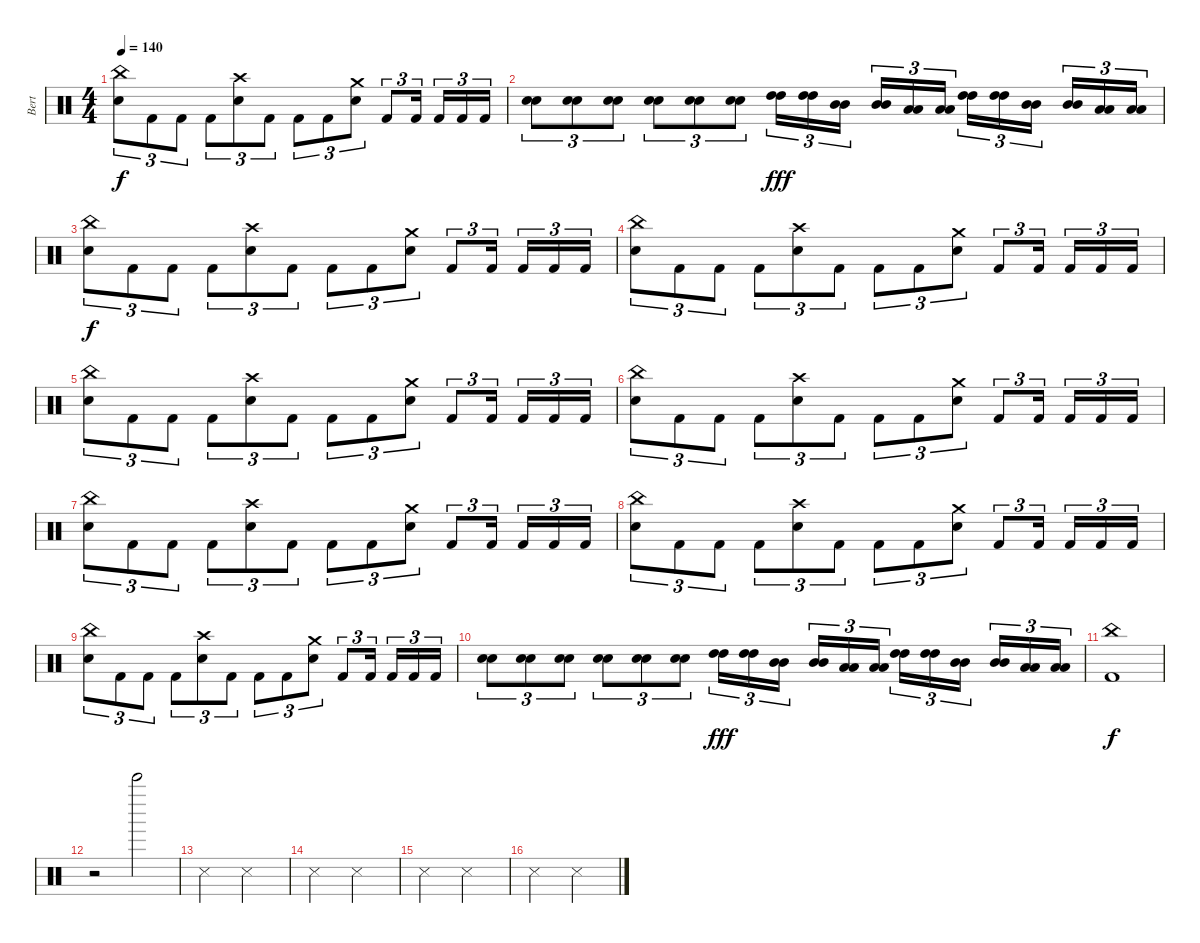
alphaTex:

\track ("Bert" "Bert") {instrument percussion}
\staff {score}
\articulation defaults
\ts (4 4)
\tempo 140
\clef neutral
\ks c
("China (hit)" "Snare (hit) 2").8{tu (3 2) dy f} "Kick (hit) 2".8{tu (3 2)} "Kick (hit) 2".8{tu (3 2)} "Kick (hit) 2".8{tu (3 2)} ("Crash high (hit)" "Snare (hit) 2").8{tu (3 2)} "Kick (hit) 2".8{tu (3 2)} "Kick (hit) 2".8{tu (3 2)} "Kick (hit) 2".8{tu (3 2)} ("Crash medium (hit)" "Snare (hit) 2").8{tu (3 2)} "Kick (hit) 2".8{tu (3 2)} "Kick (hit) 2".16{tu (3 2)} "Kick (hit) 2".16{tu (3 2)} "Kick (hit) 2".16{tu (3 2)} "Kick (hit) 2".16{tu (3 2)} |
("Electric Snare (hit)" "Snare (hit) 2").8{tu (3 2)} ("Electric Snare (hit)" "Snare (hit) 2").8{tu (3 2)} ("Electric Snare (hit)" "Snare (hit) 2").8{tu (3 2)} ("Electric Snare (hit)" "Snare (hit) 2").8{tu (3 2)} ("Electric Snare (hit)" "Snare (hit) 2").8{tu (3 2)} ("Electric Snare (hit)" "Snare (hit) 2").8{tu (3 2)} ("High Tom (hit)" "High Tom (hit)").16{tu (3 2) dy fff} ("High Tom (hit)" "High Tom (hit)").16{tu (3 2)} ("Mid Tom (hit)" "Mid Tom (hit)").16{tu (3 2)} ("Mid Tom (hit)" "Mid Tom (hit)").16{tu (3 2)} ("Low Tom (hit)" "Low Tom (hit)").16{tu (3 2)} ("Low Tom (hit)" "Low Tom (hit)").16{tu (3 2)} ("High Tom (hit)" "High Tom (hit)").16{tu (3 2)} ("High Tom (hit)" "High Tom (hit)").16{tu (3 2)} ("Mid Tom (hit)" "Mid Tom (hit)").16{tu (3 2)} ("Mid Tom (hit)" "Mid Tom (hit)").16{tu (3 2)} ("Low Tom (hit)" "Low Tom (hit)").16{tu (3 2)} ("Low Tom (hit)" "Low Tom (hit)").16{tu (3 2)} |
("China (hit)" "Snare (hit) 2").8{tu (3 2) dy f} "Kick (hit) 2".8{tu (3 2)} "Kick (hit) 2".8{tu (3 2)} "Kick (hit) 2".8{tu (3 2)} ("Crash high (hit)" "Snare (hit) 2").8{tu (3 2)} "Kick (hit) 2".8{tu (3 2)} "Kick (hit) 2".8{tu (3 2)} "Kick (hit) 2".8{tu (3 2)} ("Crash medium (hit)" "Snare (hit) 2").8{tu (3 2)} "Kick (hit) 2".8{tu (3 2)} "Kick (hit) 2".16{tu (3 2)} "Kick (hit) 2".16{tu (3 2)} "Kick (hit) 2".16{tu (3 2)} "Kick (hit) 2".16{tu (3 2)} |
("China (hit)" "Snare (hit) 2").8{tu (3 2)} "Kick (hit) 2".8{tu (3 2)} "Kick (hit) 2".8{tu (3 2)} "Kick (hit) 2".8{tu (3 2)} ("Crash high (hit)" "Snare (hit) 2").8{tu (3 2)} "Kick (hit) 2".8{tu (3 2)} "Kick (hit) 2".8{tu (3 2)} "Kick (hit) 2".8{tu (3 2)} ("Crash medium (hit)" "Snare (hit) 2").8{tu (3 2)} "Kick (hit) 2".8{tu (3 2)} "Kick (hit) 2".16{tu (3 2)} "Kick (hit) 2".16{tu (3 2)} "Kick (hit) 2".16{tu (3 2)} "Kick (hit) 2".16{tu (3 2)} |
("China (hit)" "Snare (hit) 2").8{tu (3 2)} "Kick (hit) 2".8{tu (3 2)} "Kick (hit) 2".8{tu (3 2)} "Kick (hit) 2".8{tu (3 2)} ("Crash high (hit)" "Snare (hit) 2").8{tu (3 2)} "Kick (hit) 2".8{tu (3 2)} "Kick (hit) 2".8{tu (3 2)} "Kick (hit) 2".8{tu (3 2)} ("Crash medium (hit)" "Snare (hit) 2").8{tu (3 2)} "Kick (hit) 2".8{tu (3 2)} "Kick (hit) 2".16{tu (3 2)} "Kick (hit) 2".16{tu (3 2)} "Kick (hit) 2".16{tu (3 2)} "Kick (hit) 2".16{tu (3 2)} |
("China (hit)" "Snare (hit) 2").8{tu (3 2)} "Kick (hit) 2".8{tu (3 2)} "Kick (hit) 2".8{tu (3 2)} "Kick (hit) 2".8{tu (3 2)} ("Crash high (hit)" "Snare (hit) 2").8{tu (3 2)} "Kick (hit) 2".8{tu (3 2)} "Kick (hit) 2".8{tu (3 2)} "Kick (hit) 2".8{tu (3 2)} ("Crash medium (hit)" "Snare (hit) 2").8{tu (3 2)} "Kick (hit) 2".8{tu (3 2)} "Kick (hit) 2".16{tu (3 2)} "Kick (hit) 2".16{tu (3 2)} "Kick (hit) 2".16{tu (3 2)} "Kick (hit) 2".16{tu (3 2)} |
("China (hit)" "Snare (hit) 2").8{tu (3 2)} "Kick (hit) 2".8{tu (3 2)} "Kick (hit) 2".8{tu (3 2)} "Kick (hit) 2".8{tu (3 2)} ("Crash high (hit)" "Snare (hit) 2").8{tu (3 2)} "Kick (hit) 2".8{tu (3 2)} "Kick (hit) 2".8{tu (3 2)} "Kick (hit) 2".8{tu (3 2)} ("Crash medium (hit)" "Snare (hit) 2").8{tu (3 2)} "Kick (hit) 2".8{tu (3 2)} "Kick (hit) 2".16{tu (3 2)} "Kick (hit) 2".16{tu (3 2)} "Kick (hit) 2".16{tu (3 2)} "Kick (hit) 2".16{tu (3 2)} |
("China (hit)" "Snare (hit) 2").8{tu (3 2)} "Kick (hit) 2".8{tu (3 2)} "Kick (hit) 2".8{tu (3 2)} "Kick (hit) 2".8{tu (3 2)} ("Crash high (hit)" "Snare (hit) 2").8{tu (3 2)} "Kick (hit) 2".8{tu (3 2)} "Kick (hit) 2".8{tu (3 2)} "Kick (hit) 2".8{tu (3 2)} ("Crash medium (hit)" "Snare (hit) 2").8{tu (3 2)} "Kick (hit) 2".8{tu (3 2)} "Kick (hit) 2".16{tu (3 2)} "Kick (hit) 2".16{tu (3 2)} "Kick (hit) 2".16{tu (3 2)} "Kick (hit) 2".16{tu (3 2)} |
("China (hit)" "Snare (hit) 2").8{tu (3 2)} "Kick (hit) 2".8{tu (3 2)} "Kick (hit) 2".8{tu (3 2)} "Kick (hit) 2".8{tu (3 2)} ("Crash high (hit)" "Snare (hit) 2").8{tu (3 2)} "Kick (hit) 2".8{tu (3 2)} "Kick (hit) 2".8{tu (3 2)} "Kick (hit) 2".8{tu (3 2)} ("Crash medium (hit)" "Snare (hit) 2").8{tu (3 2)} "Kick (hit) 2".8{tu (3 2)} "Kick (hit) 2".16{tu (3 2)} "Kick (hit) 2".16{tu (3 2)} "Kick (hit) 2".16{tu (3 2)} "Kick (hit) 2".16{tu (3 2)} |
("Electric Snare (hit)" "Snare (hit) 2").8{tu (3 2)} ("Electric Snare (hit)" "Snare (hit) 2").8{tu (3 2)} ("Electric Snare (hit)" "Snare (hit) 2").8{tu (3 2)} ("Electric Snare (hit)" "Snare (hit) 2").8{tu (3 2)} ("Electric Snare (hit)" "Snare (hit) 2").8{tu (3 2)} ("Electric Snare (hit)" "Snare (hit) 2").8{tu (3 2)} ("High Tom (hit)" "High Tom (hit)").16{tu (3 2) dy fff} ("High Tom (hit)" "High Tom (hit)").16{tu (3 2)} ("Mid Tom (hit)" "Mid Tom (hit)").16{tu (3 2)} ("Mid Tom (hit)" "Mid Tom (hit)").16{tu (3 2)} ("Low Tom (hit)" "Low Tom (hit)").16{tu (3 2)} ("Low Tom (hit)" "Low Tom (hit)").16{tu (3 2)} ("High Tom (hit)" "High Tom (hit)").16{tu (3 2)} ("High Tom (hit)" "High Tom (hit)").16{tu (3 2)} ("Mid Tom (hit)" "Mid Tom (hit)").16{tu (3 2)} ("Mid Tom (hit)" "Mid Tom (hit)").16{tu (3 2)} ("Low Tom (hit)" "Low Tom (hit)").16{tu (3 2)} ("Low Tom (hit)" "Low Tom (hit)").16{tu (3 2)} |
("China (hit)" "Kick (hit) 2").1{dy f} |
r.2 "Bell Tree (hit)".2 |
"Snare (side stick) 3".2 "Snare (side stick) 3".2 |
"Snare (side stick) 3".2 "Snare (side stick) 3".2 |
"Snare (side stick) 3".2 "Snare (side stick) 3".2 |
"Snare (side stick) 3".2 "Snare (side stick) 3".2
